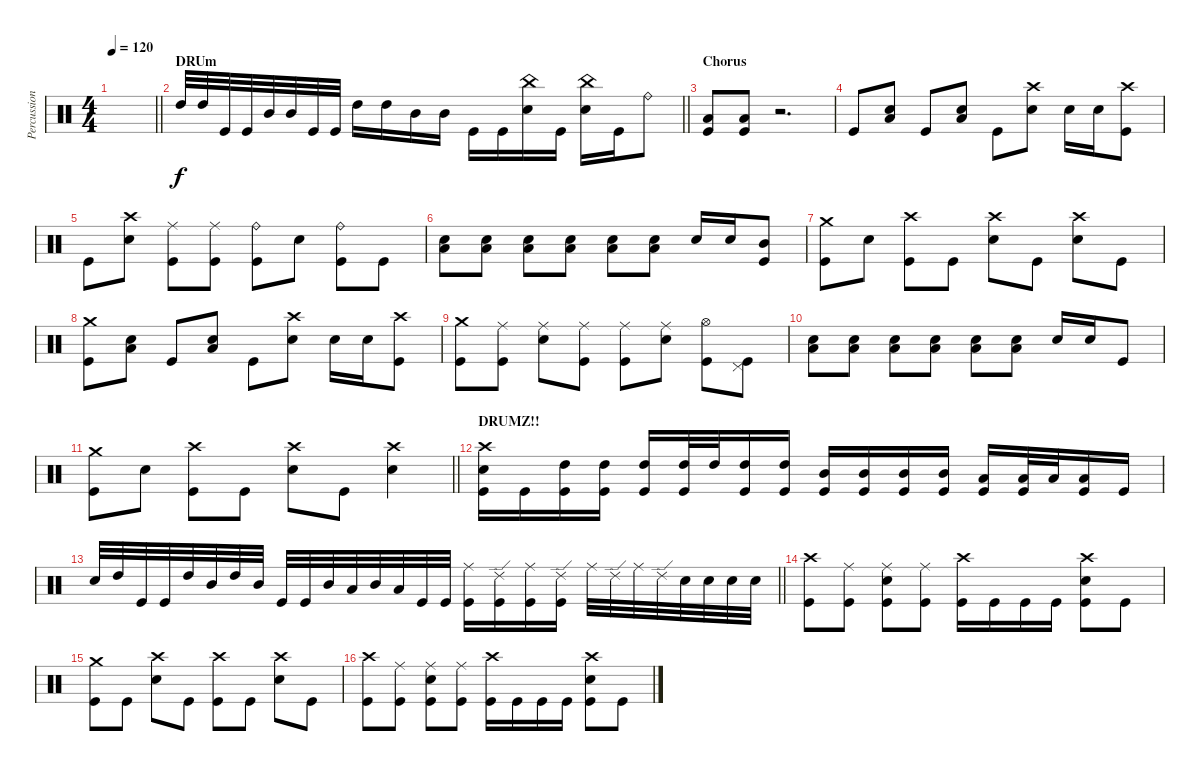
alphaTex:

\track ("Percussion" "Percussion") {instrument percussion}
\staff {score}
\articulation defaults
\ts (4 4)
\tempo 120
\clef neutral
\barLineRight lightlight
\ks c
|
\section ("" "DRUm")
\barLineRight lightlight "High Tom (hit)".32 "High Tom (hit)".32 "Kick (hit)".32 "Kick (hit)".32 "Mid Tom (hit)".32 "Mid Tom (hit)".32 "Kick (hit)".32 "Kick (hit)".32 "High Tom (hit)".16 "High Tom (hit)".16 "Mid Tom (hit)".16 "Mid Tom (hit)".16 "Kick (hit)".16 "Kick (hit)".16
("China (hit)" "Snare (hit) 2").16 "Kick (hit)".16 ("Snare (hit) 2" "China (hit)").16 "Kick (hit)".16 "Ride (bell)".8 |
\section ("" "Chorus")
("Kick (hit)" "Low Tom (hit)").8 ("Low Tom (hit)" "Kick (hit)").8 r.2{d} |
"Kick (hit)".8 ("Snare (hit) 2" "Low Tom (hit)").8 "Kick (hit)".8 ("Snare (hit) 2" "Low Tom (hit)").8 "Kick (hit)".8 ("Snare (hit) 2" "Crash high (hit)").8 "Snare (hit) 2".16 "Snare (hit) 2".16 ("Kick (hit)" "Crash high (hit)").8 |
"Kick (hit)".8 ("Snare (hit) 2" "Crash high (hit)").8 ("Kick (hit)" "Ride (middle)").8 ("Kick (hit)" "Ride (middle)").8 ("Kick (hit)" "Ride (bell)").8 "Snare (hit) 2".8 ("Kick (hit)" "Ride (bell)").8 "Kick (hit)".8 |
("Low Tom (hit)" "Snare (hit) 2").8 ("Low Tom (hit)" "Snare (hit) 2").8 ("Low Tom (hit)" "Snare (hit) 2").8 ("Low Tom (hit)" "Snare (hit) 2").8 ("Low Tom (hit)" "Snare (hit) 2").8 ("Low Tom (hit)" "Snare (hit) 2").8 "Snare (hit) 2".16 "Snare (hit) 2".16 ("Kick (hit)" "Mid Tom (hit)").8 |
("Kick (hit)" "Crash medium (hit)").8 "Snare (hit) 2".8 ("Crash high (hit)" "Kick (hit)").8 "Kick (hit)".8 ("Crash high (hit)" "Snare (hit) 2").8 "Kick (hit)".8 ("Crash high (hit)" "Snare (hit) 2").8 "Kick (hit)".8 |
("Kick (hit)" "Crash medium (hit)").8 ("Snare (hit) 2" "Low Tom (hit)").8 "Kick (hit)".8 ("Snare (hit) 2" "Low Tom (hit)").8 "Kick (hit)".8 ("Snare (hit) 2" "Crash high (hit)").8 "Snare (hit) 2".16 "Snare (hit) 2".16 ("Kick (hit)" "Crash high (hit)").8 |
("Kick (hit)" "Crash medium (hit)").8 ("Kick (hit)" "Ride (middle)").8 ("Ride (middle)" "Snare (hit) 2").8 ("Kick (hit)" "Ride (middle)").8 ("Kick (hit)" "Ride (middle)").8 ("Ride (middle)" "Snare (hit) 2").8 ("Kick (hit)" "Hi-Hat (open)").8 ("Kick (hit)" "Pedal Hi-Hat (hit)").8 |
("Low Tom (hit)" "Snare (hit) 2").8 ("Low Tom (hit)" "Snare (hit) 2").8 ("Low Tom (hit)" "Snare (hit) 2").8 ("Low Tom (hit)" "Snare (hit) 2").8 ("Low Tom (hit)" "Snare (hit) 2").8 ("Low Tom (hit)" "Snare (hit) 2").8 "Snare (hit) 2".16 "Snare (hit) 2".16 "Kick (hit)".8 |
\barLineRight lightlight
("Kick (hit)" "Crash medium (hit)").8 "Snare (hit) 2".8 ("Crash high (hit)" "Kick (hit)").8 "Kick (hit)".8 ("Crash high (hit)" "Snare (hit) 2").8 "Kick (hit)".8 ("Crash high (hit)" "Snare (hit) 2").4 |
\section ("" "DRUMZ!!")
("Kick (hit)" "Snare (hit) 2" "Crash high (hit)").16 "Kick (hit)".16 ("Kick (hit)" "High Tom (hit)").16 ("Kick (hit)" "High Tom (hit)").16 ("Kick (hit)" "High Tom (hit)").16 ("Kick (hit)" "High Tom (hit)").32 "High Tom (hit)".32 ("Kick (hit)" "High Tom (hit)").16 ("Kick (hit)" "High Tom (hit)").16 ("Kick (hit)" "Mid Tom (hit)").16 ("Kick (hit)" "Mid Tom (hit)").16 ("Kick (hit)" "Mid Tom (hit)").16 ("Kick (hit)" "Mid Tom (hit)").16 ("Low Tom (hit)" "Kick (hit)").16 ("Kick (hit)" "Low Tom (hit)").32 "Low Tom (hit)".32 ("Kick (hit)" "Low Tom (hit)").16 "Kick (hit)".16 |
\barLineRight lightlight "Snare (hit) 2".32 "High Tom (hit)".32 "Kick (hit)".32 "Kick (hit)".32 "High Tom (hit)".32 "Mid Tom (hit)".32 "High Tom (hit)".32 "Mid Tom (hit)".32 "Kick (hit)".32 "Kick (hit)".32 "Mid Tom (hit)".32 "Low Tom (hit)".32 "Mid Tom (hit)".32 "Low Tom (hit)".32 "Kick (hit)".32 "Kick (hit)".32
("Ride (middle)" "Kick (hit)").16 ("Ride (edge) 2" "Kick (hit)").16 ("Ride (middle)" "Kick (hit)").16 ("Ride (edge) 2" "Kick (hit)").16 "Ride (middle)".32 "Ride (edge) 2".32 "Ride (middle)".32 "Ride (edge) 2".32 "Snare (hit) 2".32 "Snare (hit) 2".32 "Snare (hit) 2".32 "Snare (hit) 2".32 |
("Kick (hit)" "Crash high (hit)").8 ("Kick (hit)" "Ride (middle)").8 ("Kick (hit)" "Ride (middle)" "Snare (hit) 2").8 ("Kick (hit)" "Ride (middle)").8 ("Kick (hit)" "Crash high (hit)").16 "Kick (hit)".16 "Kick (hit)".16 "Kick (hit)".16 ("Crash high (hit)" "Snare (hit) 2" "Kick (hit)").8 "Kick (hit)".8 |
("Kick (hit)" "Crash medium (hit)").8 "Kick (hit)".8 ("Crash high (hit)" "Snare (hit) 2").8 "Kick (hit)".8 ("Kick (hit)" "Crash high (hit)").8 "Kick (hit)".8 ("Snare (hit) 2" "Crash high (hit)").8 "Kick (hit)".8 |
("Kick (hit)" "Crash high (hit)").8 ("Kick (hit)" "Ride (middle)").8 ("Kick (hit)" "Ride (middle)" "Snare (hit) 2").8 ("Kick (hit)" "Ride (middle)").8 ("Kick (hit)" "Crash high (hit)").16 "Kick (hit)".16 "Kick (hit)".16 "Kick (hit)".16 ("Crash high (hit)" "Snare (hit) 2" "Kick (hit)").8 "Kick (hit)".8
